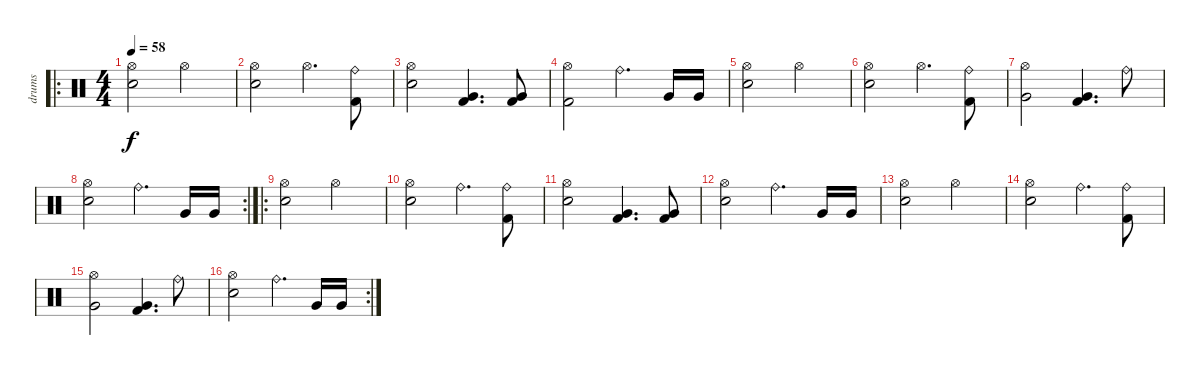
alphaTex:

\track ("drums" "drums") {instrument percussion}
\staff {score}
\articulation defaults
\ro
\ts (4 4)
\tempo 58
\clef neutral
\ks c
("Hi-Hat (open)" "Snare (hit) 2").2{dy f} "Hi-Hat (open)".2 |
("Hi-Hat (open)" "Snare (hit) 2").2 "Hi-Hat (open)".4{d} ("Ride (bell)" "Kick (hit) 2").8 |
("Hi-Hat (open)" "Snare (hit) 2").2 ("Kick (hit) 2" "Very Low Tom (hit)").4{d} ("Kick (hit) 2" "Very Low Tom (hit)").8 |
("Hi-Hat (open)" "Kick (hit) 2").2 "Ride (bell)".4{d} "Very Low Tom (hit)".16 "Very Low Tom (hit)".16 |
("Hi-Hat (open)" "Snare (hit) 2").2 "Hi-Hat (open)".2 |
("Hi-Hat (open)" "Snare (hit) 2").2 "Hi-Hat (open)".4{d} ("Ride (bell)" "Kick (hit) 2").8 |
("Hi-Hat (open)" "Very Low Tom (hit)").2 ("Kick (hit) 2" "Very Low Tom (hit)").4{d} "Ride (bell)".8 |
\rc 2
("Hi-Hat (open)" "Snare (hit) 2").2 "Ride (bell)".4{d} "Very Low Tom (hit)".16 "Very Low Tom (hit)".16 |
\ro
("Hi-Hat (open)" "Snare (hit) 2").2 "Hi-Hat (open)".2 |
("Hi-Hat (open)" "Snare (hit) 2").2 "Ride (bell)".4{d} ("Ride (bell)" "Kick (hit) 2").8 |
("Hi-Hat (open)" "Snare (hit) 2").2 ("Kick (hit) 2" "Very Low Tom (hit)").4{d} ("Kick (hit) 2" "Very Low Tom (hit)").8 |
("Hi-Hat (open)" "Snare (hit) 2").2 "Ride (bell)".4{d} "Very Low Tom (hit)".16 "Very Low Tom (hit)".16 |
("Hi-Hat (open)" "Snare (hit) 2").2 "Hi-Hat (open)".2 |
("Hi-Hat (open)" "Snare (hit) 2").2 "Ride (bell)".4{d} ("Ride (bell)" "Kick (hit) 2").8 |
("Hi-Hat (open)" "Very Low Tom (hit)").2 ("Kick (hit) 2" "Very Low Tom (hit)").4{d} "Ride (bell)".8 |
\rc 2
("Hi-Hat (open)" "Snare (hit) 2").2 "Ride (bell)".4{d} "Very Low Tom (hit)".16 "Very Low Tom (hit)".16
